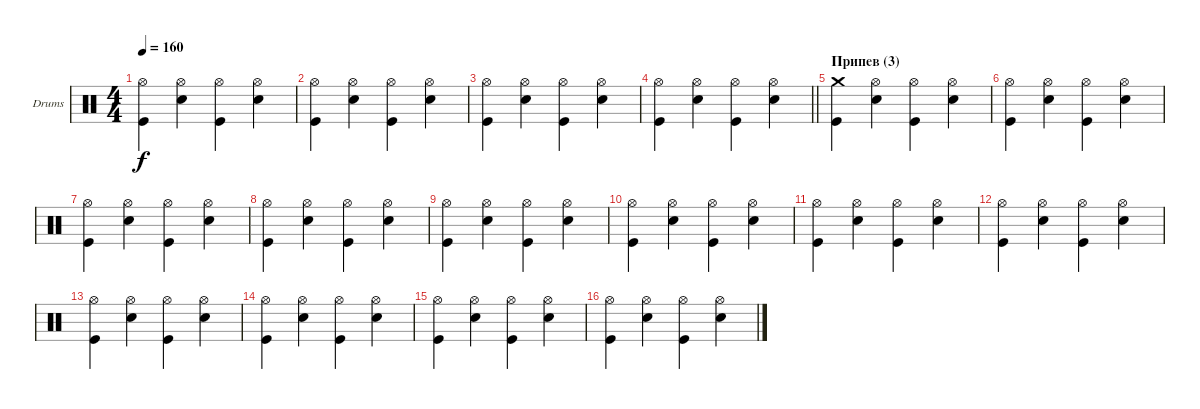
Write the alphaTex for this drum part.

\bracketExtendMode groupsimilarinstruments
\firstSystemTrackNameOrientation horizontal
\otherSystemsTrackNameOrientation horizontal
\track ("Drumkit" "Drums") {instrument percussion}
\staff {score}
\articulation defaults
\ts (4 4)
\tempo 160
\clef neutral
\ks c
("Hi-Hat (open)" "Kick (hit)").4{dy f} ("Hi-Hat (open)" "Snare (hit) 2").4 ("Hi-Hat (open)" "Kick (hit)").4 ("Hi-Hat (open)" "Snare (hit) 2").4 |
("Hi-Hat (open)" "Kick (hit)").4 ("Hi-Hat (open)" "Snare (hit) 2").4 ("Hi-Hat (open)" "Kick (hit)").4 ("Hi-Hat (open)" "Snare (hit) 2").4 |
("Hi-Hat (open)" "Kick (hit)").4 ("Hi-Hat (open)" "Snare (hit) 2").4 ("Hi-Hat (open)" "Kick (hit)").4 ("Hi-Hat (open)" "Snare (hit) 2").4 |
\barLineRight lightlight
("Hi-Hat (open)" "Kick (hit)").4 ("Hi-Hat (open)" "Snare (hit) 2").4 ("Hi-Hat (open)" "Kick (hit)").4 ("Hi-Hat (open)" "Snare (hit) 2").4 |
\section ("" "Припев (3)")
("Crash medium (hit)" "Kick (hit)").4 ("Hi-Hat (open)" "Snare (hit) 2").4 ("Hi-Hat (open)" "Kick (hit)").4 ("Hi-Hat (open)" "Snare (hit) 2").4 |
("Hi-Hat (open)" "Kick (hit)").4 ("Hi-Hat (open)" "Snare (hit) 2").4 ("Hi-Hat (open)" "Kick (hit)").4 ("Hi-Hat (open)" "Snare (hit) 2").4 |
("Hi-Hat (open)" "Kick (hit)").4 ("Hi-Hat (open)" "Snare (hit) 2").4 ("Hi-Hat (open)" "Kick (hit)").4 ("Hi-Hat (open)" "Snare (hit) 2").4 |
("Hi-Hat (open)" "Kick (hit)").4 ("Hi-Hat (open)" "Snare (hit) 2").4 ("Hi-Hat (open)" "Kick (hit)").4 ("Hi-Hat (open)" "Snare (hit) 2").4 |
("Hi-Hat (open)" "Kick (hit)").4 ("Hi-Hat (open)" "Snare (hit) 2").4 ("Hi-Hat (open)" "Kick (hit)").4 ("Hi-Hat (open)" "Snare (hit) 2").4 |
("Hi-Hat (open)" "Kick (hit)").4 ("Hi-Hat (open)" "Snare (hit) 2").4 ("Hi-Hat (open)" "Kick (hit)").4 ("Hi-Hat (open)" "Snare (hit) 2").4 |
("Hi-Hat (open)" "Kick (hit)").4 ("Hi-Hat (open)" "Snare (hit) 2").4 ("Hi-Hat (open)" "Kick (hit)").4 ("Hi-Hat (open)" "Snare (hit) 2").4 |
("Hi-Hat (open)" "Kick (hit)").4 ("Hi-Hat (open)" "Snare (hit) 2").4 ("Hi-Hat (open)" "Kick (hit)").4 ("Hi-Hat (open)" "Snare (hit) 2").4 |
("Hi-Hat (open)" "Kick (hit)").4 ("Hi-Hat (open)" "Snare (hit) 2").4 ("Hi-Hat (open)" "Kick (hit)").4 ("Hi-Hat (open)" "Snare (hit) 2").4 |
("Hi-Hat (open)" "Kick (hit)").4 ("Hi-Hat (open)" "Snare (hit) 2").4 ("Hi-Hat (open)" "Kick (hit)").4 ("Hi-Hat (open)" "Snare (hit) 2").4 |
("Hi-Hat (open)" "Kick (hit)").4 ("Hi-Hat (open)" "Snare (hit) 2").4 ("Hi-Hat (open)" "Kick (hit)").4 ("Hi-Hat (open)" "Snare (hit) 2").4 |
("Hi-Hat (open)" "Kick (hit)").4 ("Hi-Hat (open)" "Snare (hit) 2").4 ("Hi-Hat (open)" "Kick (hit)").4 ("Hi-Hat (open)" "Snare (hit) 2").4
